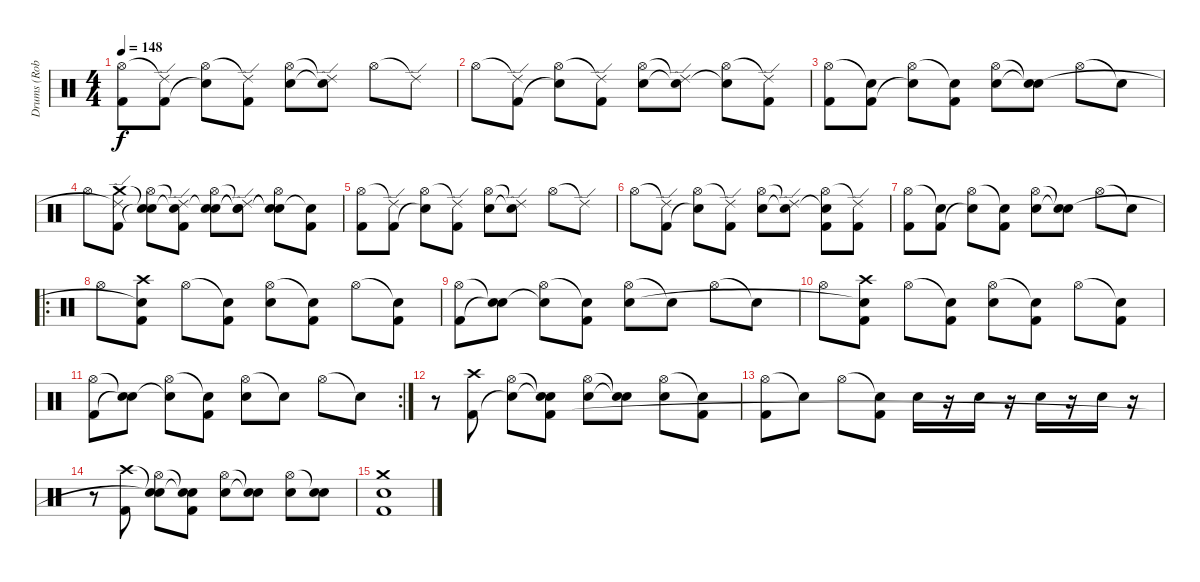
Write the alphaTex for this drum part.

\track ("Drums (Rob Bourdon)" "Drums (Rob") {instrument percussion}
\staff {score}
\articulation defaults
\ts (4 4)
\tempo 148
\clef neutral
\ks c
("Hi-Hat (open)" "Kick (hit) 2").8{dy f} ("Ride (edge) 2"{t} "Kick (hit) 2").8 ("Hi-Hat (open)" "Snare (hit)"{t}).8 ("Ride (edge) 2"{t} "Kick (hit) 2").8 ("Hi-Hat (open)" "Electric Snare (hit)").8 ("Ride (edge) 2"{t} "Snare (hit)"{t}).8 "Hi-Hat (open)".8 "Ride (edge) 2"{t}.8 |
"Hi-Hat (open)".8 ("Ride (edge) 2"{t} "Kick (hit) 2").8 ("Hi-Hat (open)" "Snare (hit)"{t}).8 ("Ride (edge) 2"{t} "Kick (hit) 2").8 ("Hi-Hat (open)" "Electric Snare (hit)").8 ("Ride (edge) 2"{t} "Snare (hit)"{t}).8 ("Hi-Hat (open)" "Snare (hit)"{t}).8 ("Ride (edge) 2"{t} "Kick (hit) 2").8 |
("Hi-Hat (open)" "Kick (hit) 2").8 ("Snare (hit)"{t} "Kick (hit) 2").8 ("Hi-Hat (open)" "Snare (hit)"{t}).8 ("Snare (hit)"{t} "Kick (hit) 2").8 ("Hi-Hat (open)" "Electric Snare (hit)").8 ("Snare (hit)"{t} "Snare (hit)"{t}).8 "Hi-Hat (open)".8 "Snare (hit)"{t}.8 |
"Hi-Hat (open)".8 ("Crash medium (hit)" "Ride (edge) 2"{t} "Kick (hit) 2").8 ("Snare (hit)"{t} "Hi-Hat (open)" "Snare (hit)"{t}).8 ("Snare (hit)"{t} "Ride (edge) 2"{t} "Kick (hit) 2").8 ("Snare (hit)"{t} "Hi-Hat (open)" "Electric Snare (hit)").8 ("Snare (hit)"{t} "Ride (edge) 2"{t} "Snare (hit)"{t}).8 ("Snare (hit)"{t} "Hi-Hat (open)" "Snare (hit)"{t}).8 ("Snare (hit)"{t} "Kick (hit) 2").8 |
("Hi-Hat (open)" "Kick (hit) 2").8 ("Ride (edge) 2"{t} "Kick (hit) 2").8 ("Hi-Hat (open)" "Snare (hit)"{t}).8 ("Ride (edge) 2"{t} "Kick (hit) 2").8 ("Hi-Hat (open)" "Electric Snare (hit)").8 ("Ride (edge) 2"{t} "Snare (hit)"{t}).8 "Hi-Hat (open)".8 "Ride (edge) 2"{t}.8 |
"Hi-Hat (open)".8 ("Ride (edge) 2"{t} "Kick (hit) 2").8 ("Hi-Hat (open)" "Snare (hit)"{t}).8 ("Ride (edge) 2"{t} "Kick (hit) 2").8 ("Hi-Hat (open)" "Electric Snare (hit)").8 ("Ride (edge) 2"{t} "Snare (hit)"{t}).8 ("Hi-Hat (open)" "Snare (hit)"{t} "Kick (hit) 2").8 ("Ride (edge) 2"{t} "Kick (hit) 2").8 |
("Hi-Hat (open)" "Kick (hit) 2").8 ("Snare (hit)"{t} "Kick (hit) 2").8 ("Hi-Hat (open)" "Snare (hit)"{t}).8 ("Snare (hit)"{t} "Kick (hit) 2").8 ("Hi-Hat (open)" "Electric Snare (hit)").8 ("Snare (hit)"{t} "Snare (hit)"{t}).8 "Hi-Hat (open)".8 "Snare (hit)"{t}.8 |
\ro "Hi-Hat (open)".8
("Crash high (hit)" "Snare (hit)"{t} "Kick (hit) 2").8 "Hi-Hat (open)".8 ("Snare (hit)"{t} "Kick (hit) 2").8 ("Hi-Hat (open)" "Electric Snare (hit)").8 ("Snare (hit)"{t} "Kick (hit) 2").8 "Hi-Hat (open)".8 ("Snare (hit)"{t} "Kick (hit) 2").8 |
("Hi-Hat (open)" "Kick (hit) 2").8 ("Snare (hit)"{t} "Snare (hit)"{t}).8 ("Hi-Hat (open)" "Snare (hit)"{t}).8 ("Snare (hit)"{t} "Kick (hit) 2").8 ("Hi-Hat (open)" "Electric Snare (hit)").8 "Snare (hit)"{t}.8 "Hi-Hat (open)".8 "Snare (hit)"{t}.8 |
"Hi-Hat (open)".8 ("Crash high (hit)" "Snare (hit)"{t} "Kick (hit) 2").8 "Hi-Hat (open)".8 ("Snare (hit)"{t} "Kick (hit) 2").8 ("Hi-Hat (open)" "Electric Snare (hit)").8 ("Snare (hit)"{t} "Kick (hit) 2").8 "Hi-Hat (open)".8 ("Snare (hit)"{t} "Kick (hit) 2").8 |
\rc 2
("Hi-Hat (open)" "Kick (hit) 2").8 ("Snare (hit)"{t} "Snare (hit)"{t}).8 ("Hi-Hat (open)" "Snare (hit)"{t}).8 ("Snare (hit)"{t} "Kick (hit) 2").8 ("Hi-Hat (open)" "Electric Snare (hit)").8 "Snare (hit)"{t}.8 "Hi-Hat (open)".8 "Snare (hit)"{t}.8 |
r.8 ("Crash high (hit)" "Kick (hit) 2").8 ("Hi-Hat (open)" "Snare (hit)"{t}).8 ("Snare (hit)"{t} "Snare (hit)"{t} "Kick (hit) 2").8 ("Hi-Hat (open)" "Electric Snare (hit)").8 ("Snare (hit)"{t} "Snare (hit)"{t}).8 ("Hi-Hat (open)" "Electric Snare (hit)").8 ("Snare (hit)"{t} "Kick (hit) 2").8 |
("Hi-Hat (open)" "Kick (hit) 2").8 "Snare (hit)"{t}.8 "Hi-Hat (open)".8 ("Snare (hit)"{t} "Kick (hit) 2").8 "Metronome (bell)".16 r.16 "Metronome (bell)".16 r.16 "Metronome (bell)".16 r.16 "Metronome (bell)".16 r.16 |
r.8 ("Crash high (hit)" "Kick (hit) 2").8 ("Snare (hit)"{t} "Hi-Hat (open)" "Snare (hit)"{t}).8 ("Snare (hit)"{t} "Snare (hit)"{t} "Kick (hit) 2").8 ("Hi-Hat (open)" "Electric Snare (hit)").8 ("Snare (hit)"{t} "Snare (hit)"{t}).8 ("Hi-Hat (open)" "Electric Snare (hit)").8 ("Snare (hit)"{t} "Electric Snare (hit)").8 |
("Crash medium (hit)" "Electric Snare (hit)" "Kick (hit) 2").1
